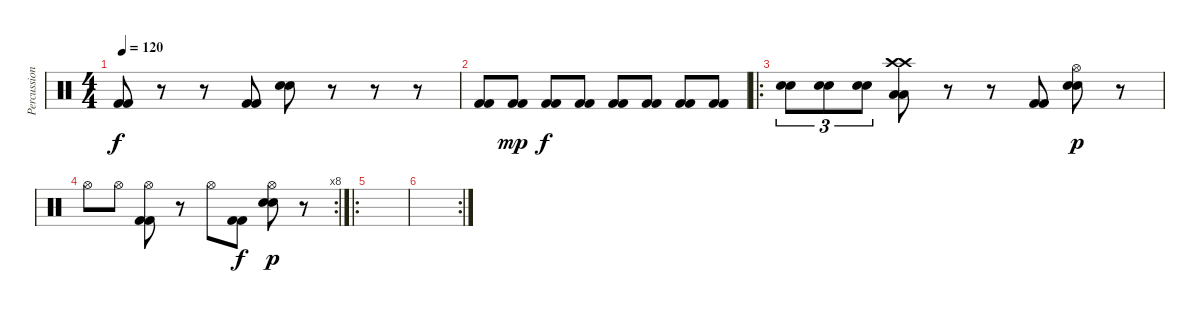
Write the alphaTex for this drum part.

\track ("Percussion" "Percussion") {instrument percussion}
\staff {score}
\articulation defaults
\ts (4 4)
\tempo 120
\clef neutral
\ks c
("Kick (hit) 2" "Kick (hit) 2").8{dy f} r.8 r.8 ("Kick (hit) 2" "Kick (hit) 2").8 ("Electric Snare (hit)" "Electric Snare (hit)").8 r.8 r.8 r.8 |
("Kick (hit) 2" "Kick (hit) 2").8 ("Kick (hit) 2" "Kick (hit) 2").8{dy mp} ("Kick (hit) 2" "Kick (hit) 2").8{dy f} ("Kick (hit) 2" "Kick (hit) 2").8 ("Kick (hit) 2" "Kick (hit) 2").8 ("Kick (hit) 2" "Kick (hit) 2").8 ("Kick (hit) 2" "Kick (hit) 2").8 ("Kick (hit) 2" "Kick (hit) 2").8 |
\ro
("Electric Snare (hit)" "Electric Snare (hit)").8{tu (3 2)} ("Electric Snare (hit)" "Electric Snare (hit)").8{tu (3 2)} ("Electric Snare (hit)" "Electric Snare (hit)").8{tu (3 2)} ("Crash high (hit)" "Crash high (hit)" "Low Tom (hit)" "Low Tom (hit)").8 r.8 r.8 ("Kick (hit) 2" "Kick (hit) 2").8 ("Hi-Hat (open)" "Electric Snare (hit)" "Electric Snare (hit)").8{dy p} r.8 |
\rc 8 "Hi-Hat (open)".8 "Hi-Hat (open)".8
("Hi-Hat (open)" "Kick (hit) 2" "Kick (hit) 2").8 r.8 "Hi-Hat (open)".8 ("Kick (hit) 2" "Kick (hit) 2").8{dy f} ("Hi-Hat (open)" "Electric Snare (hit)" "Electric Snare (hit)").8{dy p} r.8 |
\ro
|
\rc 2
